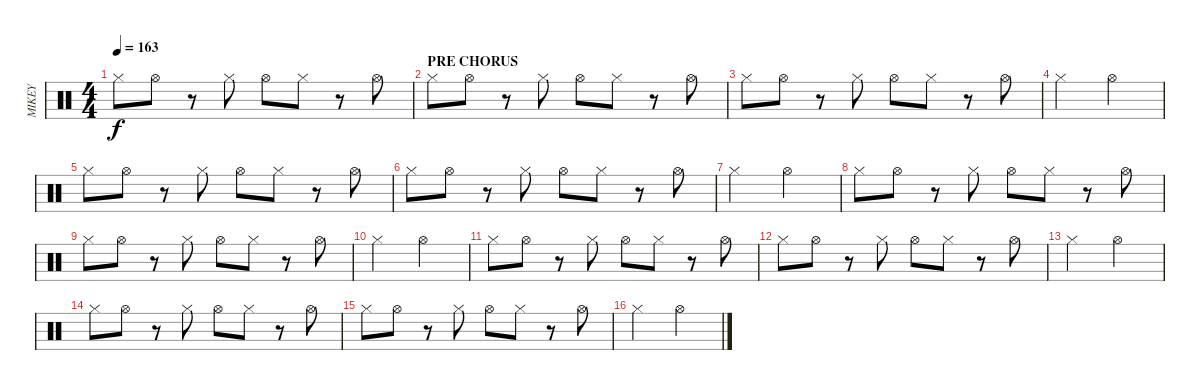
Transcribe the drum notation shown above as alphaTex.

\track ("MIKEY" "MIKEY") {instrument percussion}
\staff {score}
\articulation defaults
\ts (4 4)
\tempo 163
\clef neutral
\ks c "Hi-Hat (closed)".8{dy f} "Hi-Hat (open)".8
r.8 "Hi-Hat (closed)".8 "Hi-Hat (open)".8 "Hi-Hat (closed)".8 r.8 "Hi-Hat (open)".8 |
\section ("" "PRE CHORUS")
"Hi-Hat (closed)".8 "Hi-Hat (open)".8 r.8 "Hi-Hat (closed)".8 "Hi-Hat (open)".8 "Hi-Hat (closed)".8 r.8 "Hi-Hat (open)".8 |
"Hi-Hat (closed)".8 "Hi-Hat (open)".8 r.8 "Hi-Hat (closed)".8 "Hi-Hat (open)".8 "Hi-Hat (closed)".8 r.8 "Hi-Hat (open)".8 |
"Hi-Hat (closed)".2 "Hi-Hat (open)".2 |
"Hi-Hat (closed)".8 "Hi-Hat (open)".8 r.8 "Hi-Hat (closed)".8 "Hi-Hat (open)".8 "Hi-Hat (closed)".8 r.8 "Hi-Hat (open)".8 |
"Hi-Hat (closed)".8 "Hi-Hat (open)".8 r.8 "Hi-Hat (closed)".8 "Hi-Hat (open)".8 "Hi-Hat (closed)".8 r.8 "Hi-Hat (open)".8 |
"Hi-Hat (closed)".2 "Hi-Hat (open)".2 |
"Hi-Hat (closed)".8 "Hi-Hat (open)".8 r.8 "Hi-Hat (closed)".8 "Hi-Hat (open)".8 "Hi-Hat (closed)".8 r.8 "Hi-Hat (open)".8 |
"Hi-Hat (closed)".8 "Hi-Hat (open)".8 r.8 "Hi-Hat (closed)".8 "Hi-Hat (open)".8 "Hi-Hat (closed)".8 r.8 "Hi-Hat (open)".8 |
"Hi-Hat (closed)".2 "Hi-Hat (open)".2 |
"Hi-Hat (closed)".8 "Hi-Hat (open)".8 r.8 "Hi-Hat (closed)".8 "Hi-Hat (open)".8 "Hi-Hat (closed)".8 r.8 "Hi-Hat (open)".8 |
"Hi-Hat (closed)".8 "Hi-Hat (open)".8 r.8 "Hi-Hat (closed)".8 "Hi-Hat (open)".8 "Hi-Hat (closed)".8 r.8 "Hi-Hat (open)".8 |
"Hi-Hat (closed)".2 "Hi-Hat (open)".2 |
"Hi-Hat (closed)".8 "Hi-Hat (open)".8 r.8 "Hi-Hat (closed)".8 "Hi-Hat (open)".8 "Hi-Hat (closed)".8 r.8 "Hi-Hat (open)".8 |
"Hi-Hat (closed)".8 "Hi-Hat (open)".8 r.8 "Hi-Hat (closed)".8 "Hi-Hat (open)".8 "Hi-Hat (closed)".8 r.8 "Hi-Hat (open)".8 |
"Hi-Hat (closed)".2 "Hi-Hat (open)".2
